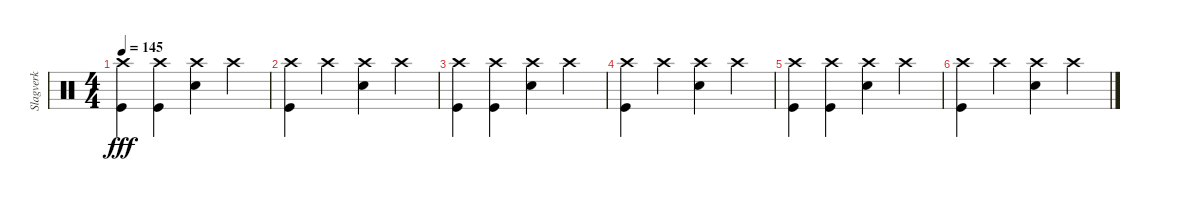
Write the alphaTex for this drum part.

\track ("Slagverk" "Slagverk") {instrument percussion}
\staff {score}
\articulation defaults
\ts (4 4)
\tempo 145
\clef neutral
\ks c
("Crash high (hit)" "Kick (hit)").4{dy fff} ("Crash high (hit)" "Kick (hit)").4 ("Crash high (hit)" "Snare (hit) 2").4 "Crash high (hit)".4 |
("Crash high (hit)" "Kick (hit)").4 "Crash high (hit)".4 ("Crash high (hit)" "Snare (hit) 2").4 "Crash high (hit)".4 |
("Crash high (hit)" "Kick (hit)").4 ("Crash high (hit)" "Kick (hit)").4 ("Crash high (hit)" "Snare (hit) 2").4 "Crash high (hit)".4 |
("Crash high (hit)" "Kick (hit)").4 "Crash high (hit)".4 ("Crash high (hit)" "Snare (hit) 2").4 "Crash high (hit)".4 |
("Crash high (hit)" "Kick (hit)").4 ("Crash high (hit)" "Kick (hit)").4 ("Crash high (hit)" "Snare (hit) 2").4 "Crash high (hit)".4 |
("Crash high (hit)" "Kick (hit)").4 "Crash high (hit)".4 ("Crash high (hit)" "Snare (hit) 2").4 "Crash high (hit)".4
